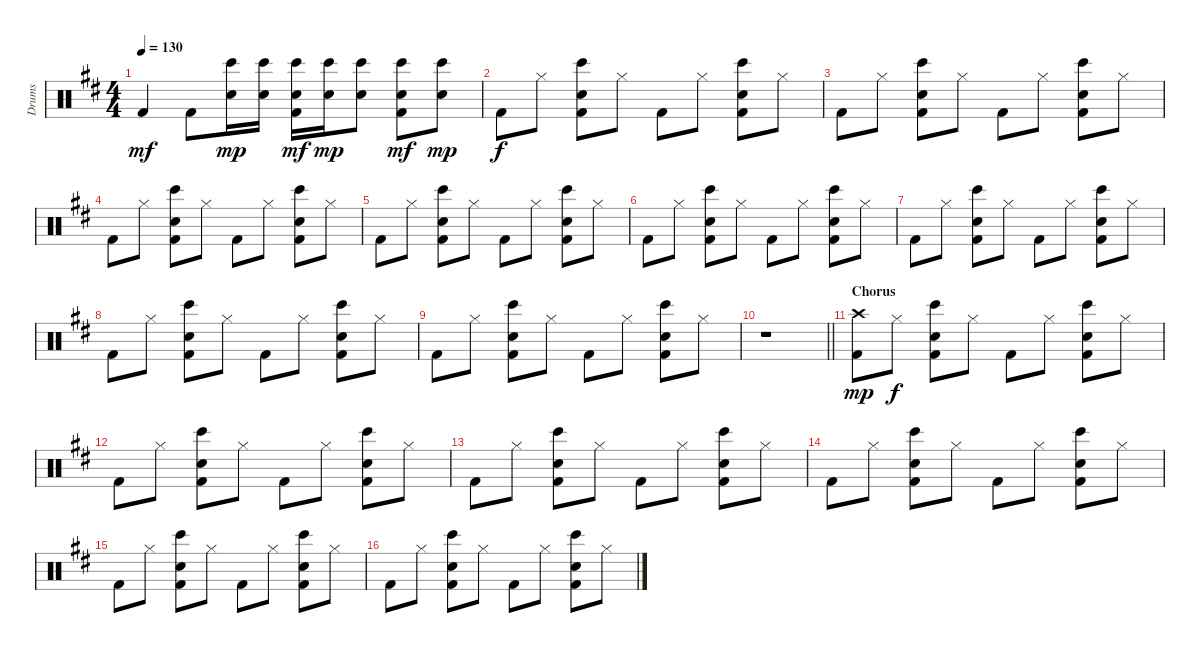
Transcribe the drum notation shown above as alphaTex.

\track ("Drums" "Drums") {instrument percussion}
\staff {score}
\articulation defaults
\ts (4 4)
\tempo 130
\clef neutral
\ks d "Kick (hit) 2".4{dy mf} "Kick (hit) 2".8
("Electric Snare (hit)" "Bongo High (hit)").16{dy mp} ("Electric Snare (hit)" "Bongo High (hit)").16 ("Electric Snare (hit)" "Bongo High (hit)" "Kick (hit) 2").16{dy mf} ("Electric Snare (hit)" "Bongo High (hit)").16{dy mp} ("Electric Snare (hit)" "Bongo High (hit)").8 ("Electric Snare (hit)" "Bongo High (hit)" "Kick (hit) 2").8{dy mf} ("Electric Snare (hit)" "Bongo High (hit)").8{dy mp} |
"Kick (hit) 2".8{dy f} "Hi-Hat (closed)".8 ("Electric Snare (hit)" "Bongo High (hit)" "Kick (hit) 2").8 "Hi-Hat (closed)".8 "Kick (hit) 2".8 "Hi-Hat (closed)".8 ("Electric Snare (hit)" "Bongo High (hit)" "Kick (hit) 2").8 "Hi-Hat (closed)".8 |
"Kick (hit) 2".8 "Hi-Hat (closed)".8 ("Electric Snare (hit)" "Bongo High (hit)" "Kick (hit) 2").8 "Hi-Hat (closed)".8 "Kick (hit) 2".8 "Hi-Hat (closed)".8 ("Electric Snare (hit)" "Bongo High (hit)" "Kick (hit) 2").8 "Hi-Hat (closed)".8 |
"Kick (hit) 2".8 "Hi-Hat (closed)".8 ("Electric Snare (hit)" "Bongo High (hit)" "Kick (hit) 2").8 "Hi-Hat (closed)".8 "Kick (hit) 2".8 "Hi-Hat (closed)".8 ("Electric Snare (hit)" "Bongo High (hit)" "Kick (hit) 2").8 "Hi-Hat (closed)".8 |
"Kick (hit) 2".8 "Hi-Hat (closed)".8 ("Electric Snare (hit)" "Bongo High (hit)" "Kick (hit) 2").8 "Hi-Hat (closed)".8 "Kick (hit) 2".8 "Hi-Hat (closed)".8 ("Electric Snare (hit)" "Bongo High (hit)" "Kick (hit) 2").8 "Hi-Hat (closed)".8 |
"Kick (hit) 2".8 "Hi-Hat (closed)".8 ("Electric Snare (hit)" "Bongo High (hit)" "Kick (hit) 2").8 "Hi-Hat (closed)".8 "Kick (hit) 2".8 "Hi-Hat (closed)".8 ("Electric Snare (hit)" "Bongo High (hit)" "Kick (hit) 2").8 "Hi-Hat (closed)".8 |
"Kick (hit) 2".8 "Hi-Hat (closed)".8 ("Electric Snare (hit)" "Bongo High (hit)" "Kick (hit) 2").8 "Hi-Hat (closed)".8 "Kick (hit) 2".8 "Hi-Hat (closed)".8 ("Electric Snare (hit)" "Bongo High (hit)" "Kick (hit) 2").8 "Hi-Hat (closed)".8 |
"Kick (hit) 2".8 "Hi-Hat (closed)".8 ("Electric Snare (hit)" "Bongo High (hit)" "Kick (hit) 2").8 "Hi-Hat (closed)".8 "Kick (hit) 2".8 "Hi-Hat (closed)".8 ("Electric Snare (hit)" "Bongo High (hit)" "Kick (hit) 2").8 "Hi-Hat (closed)".8 |
"Kick (hit) 2".8 "Hi-Hat (closed)".8 ("Electric Snare (hit)" "Bongo High (hit)" "Kick (hit) 2").8 "Hi-Hat (closed)".8 "Kick (hit) 2".8 "Hi-Hat (closed)".8 ("Electric Snare (hit)" "Bongo High (hit)" "Kick (hit) 2").8 "Hi-Hat (closed)".8 |
\barLineRight lightlight
r.1 |
\section ("" "Chorus")
("Crash high (hit)" "Kick (hit) 2").8{dy mp} "Hi-Hat (closed)".8{dy f} ("Electric Snare (hit)" "Bongo High (hit)" "Kick (hit) 2").8 "Hi-Hat (closed)".8 "Kick (hit) 2".8 "Hi-Hat (closed)".8 ("Electric Snare (hit)" "Bongo High (hit)" "Kick (hit) 2").8 "Hi-Hat (closed)".8 |
"Kick (hit) 2".8 "Hi-Hat (closed)".8 ("Electric Snare (hit)" "Bongo High (hit)" "Kick (hit) 2").8 "Hi-Hat (closed)".8 "Kick (hit) 2".8 "Hi-Hat (closed)".8 ("Electric Snare (hit)" "Bongo High (hit)" "Kick (hit) 2").8 "Hi-Hat (closed)".8 |
"Kick (hit) 2".8 "Hi-Hat (closed)".8 ("Electric Snare (hit)" "Bongo High (hit)" "Kick (hit) 2").8 "Hi-Hat (closed)".8 "Kick (hit) 2".8 "Hi-Hat (closed)".8 ("Electric Snare (hit)" "Bongo High (hit)" "Kick (hit) 2").8 "Hi-Hat (closed)".8 |
"Kick (hit) 2".8 "Hi-Hat (closed)".8 ("Electric Snare (hit)" "Bongo High (hit)" "Kick (hit) 2").8 "Hi-Hat (closed)".8 "Kick (hit) 2".8 "Hi-Hat (closed)".8 ("Electric Snare (hit)" "Bongo High (hit)" "Kick (hit) 2").8 "Hi-Hat (closed)".8 |
"Kick (hit) 2".8 "Hi-Hat (closed)".8 ("Electric Snare (hit)" "Bongo High (hit)" "Kick (hit) 2").8 "Hi-Hat (closed)".8 "Kick (hit) 2".8 "Hi-Hat (closed)".8 ("Electric Snare (hit)" "Bongo High (hit)" "Kick (hit) 2").8 "Hi-Hat (closed)".8 |
"Kick (hit) 2".8 "Hi-Hat (closed)".8 ("Electric Snare (hit)" "Bongo High (hit)" "Kick (hit) 2").8 "Hi-Hat (closed)".8 "Kick (hit) 2".8 "Hi-Hat (closed)".8 ("Electric Snare (hit)" "Bongo High (hit)" "Kick (hit) 2").8 "Hi-Hat (closed)".8
